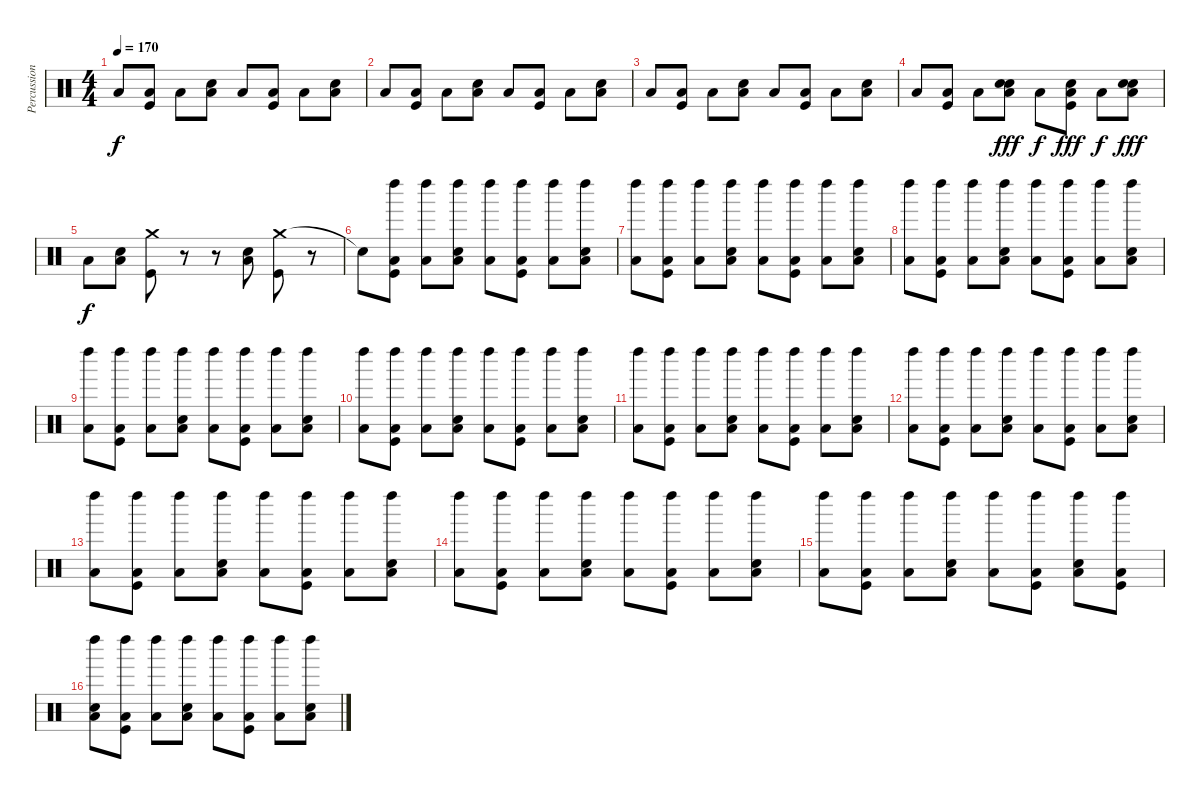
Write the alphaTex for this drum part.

\track ("Percussion" "Percussion") {instrument percussion}
\staff {score}
\articulation defaults
\ts (4 4)
\tempo 170
\clef neutral
\ks c "Low Floor Tom (hit)".8{dy f}
("Low Floor Tom (hit)" "Kick (hit)").8 "Low Floor Tom (hit)".8 ("Low Floor Tom (hit)" "Electric Snare (hit)").8 "Low Floor Tom (hit)".8 ("Low Floor Tom (hit)" "Kick (hit)").8 "Low Floor Tom (hit)".8 ("Low Floor Tom (hit)" "Electric Snare (hit)").8 |
"Low Floor Tom (hit)".8 ("Low Floor Tom (hit)" "Kick (hit)").8 "Low Floor Tom (hit)".8 ("Low Floor Tom (hit)" "Electric Snare (hit)").8 "Low Floor Tom (hit)".8 ("Low Floor Tom (hit)" "Kick (hit)").8 "Low Floor Tom (hit)".8 ("Low Floor Tom (hit)" "Electric Snare (hit)").8 |
"Low Floor Tom (hit)".8 ("Low Floor Tom (hit)" "Kick (hit)").8 "Low Floor Tom (hit)".8 ("Low Floor Tom (hit)" "Electric Snare (hit)").8 "Low Floor Tom (hit)".8 ("Low Floor Tom (hit)" "Kick (hit)").8 "Low Floor Tom (hit)".8 ("Low Floor Tom (hit)" "Electric Snare (hit)").8 |
"Low Floor Tom (hit)".8 ("Low Floor Tom (hit)" "Kick (hit)").8 "Low Floor Tom (hit)".8 ("Low Floor Tom (hit)" "Electric Snare (hit)" "Electric Snare (hit)").8{dy fff} "Low Floor Tom (hit)".8{dy f} ("Low Floor Tom (hit)" "Kick (hit)" "Electric Snare (hit)").8{dy fff} "Low Floor Tom (hit)".8{dy f} ("Low Floor Tom (hit)" "Electric Snare (hit)" "Electric Snare (hit)").8{dy fff} |
"Low Floor Tom (hit)".8{dy f} ("Low Floor Tom (hit)" "Electric Snare (hit)").8 ("Crash medium (hit)" "Kick (hit)").8 r.8 r.8 ("Low Floor Tom (hit)" "Electric Snare (hit)").8 ("Crash medium (hit)" "Kick (hit)").8 r.8 |
"Snare (hit)"{t}.8 ("Left Maraca (hit)" "Low Floor Tom (hit)" "Kick (hit)").8 ("Left Maraca (hit)" "Low Floor Tom (hit)").8 ("Left Maraca (hit)" "Low Floor Tom (hit)" "Electric Snare (hit)").8 ("Left Maraca (hit)" "Low Floor Tom (hit)").8 ("Left Maraca (hit)" "Low Floor Tom (hit)" "Kick (hit)").8 ("Left Maraca (hit)" "Low Floor Tom (hit)").8 ("Left Maraca (hit)" "Low Floor Tom (hit)" "Electric Snare (hit)").8 |
("Left Maraca (hit)" "Low Floor Tom (hit)").8 ("Left Maraca (hit)" "Low Floor Tom (hit)" "Kick (hit)").8 ("Left Maraca (hit)" "Low Floor Tom (hit)").8 ("Left Maraca (hit)" "Low Floor Tom (hit)" "Electric Snare (hit)").8 ("Left Maraca (hit)" "Low Floor Tom (hit)").8 ("Left Maraca (hit)" "Low Floor Tom (hit)" "Kick (hit)").8 ("Left Maraca (hit)" "Low Floor Tom (hit)").8 ("Left Maraca (hit)" "Low Floor Tom (hit)" "Electric Snare (hit)").8 |
("Left Maraca (hit)" "Low Floor Tom (hit)").8 ("Left Maraca (hit)" "Low Floor Tom (hit)" "Kick (hit)").8 ("Left Maraca (hit)" "Low Floor Tom (hit)").8 ("Left Maraca (hit)" "Low Floor Tom (hit)" "Electric Snare (hit)").8 ("Left Maraca (hit)" "Low Floor Tom (hit)").8 ("Left Maraca (hit)" "Low Floor Tom (hit)" "Kick (hit)").8 ("Left Maraca (hit)" "Low Floor Tom (hit)").8 ("Left Maraca (hit)" "Low Floor Tom (hit)" "Electric Snare (hit)").8 |
("Left Maraca (hit)" "Low Floor Tom (hit)").8 ("Left Maraca (hit)" "Low Floor Tom (hit)" "Kick (hit)").8 ("Left Maraca (hit)" "Low Floor Tom (hit)").8 ("Left Maraca (hit)" "Low Floor Tom (hit)" "Electric Snare (hit)").8 ("Left Maraca (hit)" "Low Floor Tom (hit)").8 ("Left Maraca (hit)" "Low Floor Tom (hit)" "Kick (hit)").8 ("Left Maraca (hit)" "Low Floor Tom (hit)").8 ("Left Maraca (hit)" "Low Floor Tom (hit)" "Electric Snare (hit)").8 |
("Left Maraca (hit)" "Low Floor Tom (hit)").8 ("Left Maraca (hit)" "Low Floor Tom (hit)" "Kick (hit)").8 ("Left Maraca (hit)" "Low Floor Tom (hit)").8 ("Left Maraca (hit)" "Low Floor Tom (hit)" "Electric Snare (hit)").8 ("Left Maraca (hit)" "Low Floor Tom (hit)").8 ("Left Maraca (hit)" "Low Floor Tom (hit)" "Kick (hit)").8 ("Left Maraca (hit)" "Low Floor Tom (hit)").8 ("Left Maraca (hit)" "Low Floor Tom (hit)" "Electric Snare (hit)").8 |
("Left Maraca (hit)" "Low Floor Tom (hit)").8 ("Left Maraca (hit)" "Low Floor Tom (hit)" "Kick (hit)").8 ("Left Maraca (hit)" "Low Floor Tom (hit)").8 ("Left Maraca (hit)" "Low Floor Tom (hit)" "Electric Snare (hit)").8 ("Left Maraca (hit)" "Low Floor Tom (hit)").8 ("Left Maraca (hit)" "Low Floor Tom (hit)" "Kick (hit)").8 ("Left Maraca (hit)" "Low Floor Tom (hit)").8 ("Left Maraca (hit)" "Low Floor Tom (hit)" "Electric Snare (hit)").8 |
("Left Maraca (hit)" "Low Floor Tom (hit)").8 ("Left Maraca (hit)" "Low Floor Tom (hit)" "Kick (hit)").8 ("Left Maraca (hit)" "Low Floor Tom (hit)").8 ("Left Maraca (hit)" "Low Floor Tom (hit)" "Electric Snare (hit)").8 ("Left Maraca (hit)" "Low Floor Tom (hit)").8 ("Left Maraca (hit)" "Low Floor Tom (hit)" "Kick (hit)").8 ("Left Maraca (hit)" "Low Floor Tom (hit)").8 ("Left Maraca (hit)" "Low Floor Tom (hit)" "Electric Snare (hit)").8 |
("Left Maraca (hit)" "Low Floor Tom (hit)").8 ("Left Maraca (hit)" "Low Floor Tom (hit)" "Kick (hit)").8 ("Left Maraca (hit)" "Low Floor Tom (hit)").8 ("Left Maraca (hit)" "Low Floor Tom (hit)" "Electric Snare (hit)").8 ("Left Maraca (hit)" "Low Floor Tom (hit)").8 ("Left Maraca (hit)" "Low Floor Tom (hit)" "Kick (hit)").8 ("Left Maraca (hit)" "Low Floor Tom (hit)").8 ("Left Maraca (hit)" "Low Floor Tom (hit)" "Electric Snare (hit)").8 |
("Left Maraca (hit)" "Low Floor Tom (hit)").8 ("Left Maraca (hit)" "Low Floor Tom (hit)" "Kick (hit)").8 ("Left Maraca (hit)" "Low Floor Tom (hit)").8 ("Left Maraca (hit)" "Low Floor Tom (hit)" "Electric Snare (hit)").8 ("Left Maraca (hit)" "Low Floor Tom (hit)").8 ("Left Maraca (hit)" "Low Floor Tom (hit)" "Kick (hit)").8 ("Left Maraca (hit)" "Low Floor Tom (hit)").8 ("Left Maraca (hit)" "Low Floor Tom (hit)" "Electric Snare (hit)").8 |
("Left Maraca (hit)" "Low Floor Tom (hit)").8 ("Left Maraca (hit)" "Low Floor Tom (hit)" "Kick (hit)").8 ("Left Maraca (hit)" "Low Floor Tom (hit)").8 ("Left Maraca (hit)" "Low Floor Tom (hit)" "Electric Snare (hit)").8 ("Left Maraca (hit)" "Low Floor Tom (hit)").8 ("Left Maraca (hit)" "Low Floor Tom (hit)" "Kick (hit)").8 ("Left Maraca (hit)" "Low Floor Tom (hit)" "Electric Snare (hit)").8 ("Left Maraca (hit)" "Low Floor Tom (hit)" "Kick (hit)").8 |
("Left Maraca (hit)" "Low Floor Tom (hit)" "Electric Snare (hit)").8 ("Left Maraca (hit)" "Low Floor Tom (hit)" "Kick (hit)").8 ("Left Maraca (hit)" "Low Floor Tom (hit)").8 ("Left Maraca (hit)" "Low Floor Tom (hit)" "Electric Snare (hit)").8 ("Left Maraca (hit)" "Low Floor Tom (hit)").8 ("Left Maraca (hit)" "Low Floor Tom (hit)" "Kick (hit)").8 ("Left Maraca (hit)" "Low Floor Tom (hit)").8 ("Left Maraca (hit)" "Low Floor Tom (hit)" "Electric Snare (hit)").8
